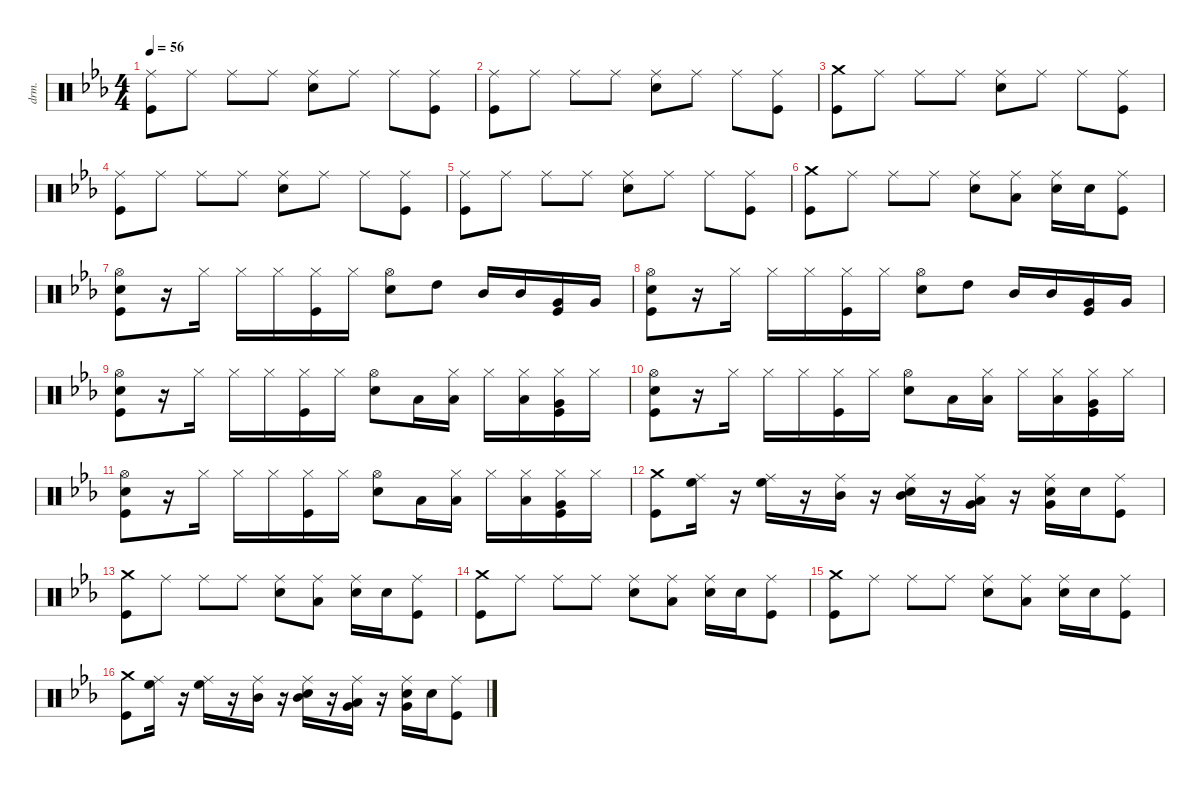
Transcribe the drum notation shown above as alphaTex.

\defaultSystemsLayout 4
\hideDynamics
\bracketExtendMode groupsimilarinstruments
\otherSystemsTrackNameOrientation horizontal
\track ("Percussion" "drm.") {instrument percussion}
\staff {score}
\articulation defaults
\ts (4 4)
\tempo 56
\clef neutral
\ks cminor
("Ride (middle)"{acc forcenatural} "Kick (hit)"{acc forcenatural}).8{dy f beam Down} "Ride (middle)"{acc forcenatural}.8{beam Down} "Ride (middle)"{acc forcenatural}.8{beam Down} "Ride (middle)"{acc forcenatural}.8{beam Down} ("Snare (hit) 2"{acc forcenatural} "Ride (middle)"{acc forcenatural}).8{beam Down} "Ride (middle)"{acc forcenatural}.8{beam Down} "Ride (middle)"{acc forcenatural}.8{beam Down} ("Kick (hit)"{acc forcenatural} "Ride (middle)"{acc forcenatural}).8{beam Down} |
("Ride (middle)"{acc forcenatural} "Kick (hit)"{acc forcenatural}).8{beam Down} "Ride (middle)"{acc forcenatural}.8{beam Down} "Ride (middle)"{acc forcenatural}.8{beam Down} "Ride (middle)"{acc forcenatural}.8{beam Down} ("Snare (hit) 2"{acc forcenatural} "Ride (middle)"{acc forcenatural}).8{beam Down} "Ride (middle)"{acc forcenatural}.8{beam Down} "Ride (middle)"{acc forcenatural}.8{beam Down} ("Kick (hit)"{acc forcenatural} "Ride (middle)"{acc forcenatural}).8{beam Down} |
("Crash medium (hit)"{acc forcenatural} "Kick (hit)"{acc forcenatural}).8{beam Down} "Ride (middle)"{acc forcenatural}.8{beam Down} "Ride (middle)"{acc forcenatural}.8{beam Down} "Ride (middle)"{acc forcenatural}.8{beam Down} ("Snare (hit) 2"{acc forcenatural} "Ride (middle)"{acc forcenatural}).8{beam Down} "Ride (middle)"{acc forcenatural}.8{beam Down} "Ride (middle)"{acc forcenatural}.8{beam Down} ("Kick (hit)"{acc forcenatural} "Ride (middle)"{acc forcenatural}).8{beam Down} |
("Ride (middle)"{acc forcenatural} "Kick (hit)"{acc forcenatural}).8{beam Down} "Ride (middle)"{acc forcenatural}.8{beam Down} "Ride (middle)"{acc forcenatural}.8{beam Down} "Ride (middle)"{acc forcenatural}.8{beam Down} ("Snare (hit) 2"{acc forcenatural} "Ride (middle)"{acc forcenatural}).8{beam Down} "Ride (middle)"{acc forcenatural}.8{beam Down} "Ride (middle)"{acc forcenatural}.8{beam Down} ("Kick (hit)"{acc forcenatural} "Ride (middle)"{acc forcenatural}).8{beam Down} |
("Ride (middle)"{acc forcenatural} "Kick (hit)"{acc forcenatural}).8{beam Down} "Ride (middle)"{acc forcenatural}.8{beam Down} "Ride (middle)"{acc forcenatural}.8{beam Down} "Ride (middle)"{acc forcenatural}.8{beam Down} ("Snare (hit) 2"{acc forcenatural} "Ride (middle)"{acc forcenatural}).8{beam Down} "Ride (middle)"{acc forcenatural}.8{beam Down} "Ride (middle)"{acc forcenatural}.8{beam Down} ("Kick (hit)"{acc forcenatural} "Ride (middle)"{acc forcenatural}).8{beam Down} |
("Crash medium (hit)"{acc forcenatural} "Kick (hit)"{acc forcenatural}).8{beam Down} "Ride (middle)"{acc forcenatural}.8{beam Down} "Ride (middle)"{acc forcenatural}.8{beam Down} "Ride (middle)"{acc forcenatural}.8{beam Down} ("Snare (hit) 2"{acc forcenatural} "Ride (middle)"{acc forcenatural}).8{beam Down} ("Low Floor Tom (hit)"{acc forcenatural} "Ride (middle)"{acc forcenatural}).8{beam Down} ("Snare (hit) 2"{acc forcenatural} "Ride (middle)"{acc forcenatural}).16{beam Down} "Snare (hit) 2"{acc forcenatural}.16{beam Down} ("Kick (hit)"{acc forcenatural} "Ride (middle)"{acc forcenatural}).8{beam Down} |
("Hi-Hat (open)"{acc forcenatural} "Kick (hit)"{acc forcenatural} "Snare (hit) 2"{acc forcenatural}).8{beam Down} r.16{beam Down} "Hi-Hat (closed)"{acc forcenatural}.16{beam Down} "Hi-Hat (closed)"{acc forcenatural}.16{beam Down} "Hi-Hat (closed)"{acc forcenatural}.16{beam Down} ("Kick (hit)"{acc forcenatural} "Hi-Hat (closed)"{acc forcenatural}).16{beam Down} "Hi-Hat (closed)"{acc forcenatural}.16{beam Down} ("Snare (hit) 2"{acc forcenatural} "Hi-Hat (open)"{acc forcenatural}).8{beam Down} "High Tom (hit)"{acc forcenatural}.8{beam Down} "Mid Tom (hit)"{acc forcenatural}.16{beam Up} "Mid Tom (hit)"{acc forcenatural}.16{beam Up} ("Very Low Tom (hit)"{acc forcenatural} "Kick (hit)"{acc forcenatural}).16{beam Up} "Very Low Tom (hit)"{acc forcenatural}.16{beam Up} |
("Hi-Hat (open)"{acc forcenatural} "Kick (hit)"{acc forcenatural} "Snare (hit) 2"{acc forcenatural}).8{beam Down} r.16{beam Down} "Hi-Hat (closed)"{acc forcenatural}.16{beam Down} "Hi-Hat (closed)"{acc forcenatural}.16{beam Down} "Hi-Hat (closed)"{acc forcenatural}.16{beam Down} ("Kick (hit)"{acc forcenatural} "Hi-Hat (closed)"{acc forcenatural}).16{beam Down} "Hi-Hat (closed)"{acc forcenatural}.16{beam Down} ("Snare (hit) 2"{acc forcenatural} "Hi-Hat (open)"{acc forcenatural}).8{beam Down} "High Tom (hit)"{acc forcenatural}.8{beam Down} "Mid Tom (hit)"{acc forcenatural}.16{beam Up} "Mid Tom (hit)"{acc forcenatural}.16{beam Up} ("Very Low Tom (hit)"{acc forcenatural} "Kick (hit)"{acc forcenatural}).16{beam Up} "Very Low Tom (hit)"{acc forcenatural}.16{beam Up} |
("Hi-Hat (open)"{acc forcenatural} "Kick (hit)"{acc forcenatural} "Snare (hit) 2"{acc forcenatural}).8{beam Down} r.16{beam Down} "Hi-Hat (closed)"{acc forcenatural}.16{beam Down} "Hi-Hat (closed)"{acc forcenatural}.16{beam Down} "Hi-Hat (closed)"{acc forcenatural}.16{beam Down} ("Kick (hit)"{acc forcenatural} "Hi-Hat (closed)"{acc forcenatural}).16{beam Down} "Hi-Hat (closed)"{acc forcenatural}.16{beam Down} ("Snare (hit) 2"{acc forcenatural} "Hi-Hat (open)"{acc forcenatural}).8{beam Down} "Low Tom (hit)"{acc forcenatural}.16{beam Down} ("Low Tom (hit)"{acc forcenatural} "Hi-Hat (closed)"{acc forcenatural}).16{beam Down} "Hi-Hat (closed)"{acc forcenatural}.16{beam Down} ("Low Tom (hit)"{acc forcenatural} "Hi-Hat (closed)"{acc forcenatural}).16{beam Down} ("Very Low Tom (hit)"{acc forcenatural} "Kick (hit)"{acc forcenatural} "Hi-Hat (closed)"{acc forcenatural}).16{beam Down} "Hi-Hat (closed)"{acc forcenatural}.16{beam Down} |
("Hi-Hat (open)"{acc forcenatural} "Kick (hit)"{acc forcenatural} "Snare (hit) 2"{acc forcenatural}).8{beam Down} r.16{beam Down} "Hi-Hat (closed)"{acc forcenatural}.16{beam Down} "Hi-Hat (closed)"{acc forcenatural}.16{beam Down} "Hi-Hat (closed)"{acc forcenatural}.16{beam Down} ("Kick (hit)"{acc forcenatural} "Hi-Hat (closed)"{acc forcenatural}).16{beam Down} "Hi-Hat (closed)"{acc forcenatural}.16{beam Down} ("Snare (hit) 2"{acc forcenatural} "Hi-Hat (open)"{acc forcenatural}).8{beam Down} "Low Tom (hit)"{acc forcenatural}.16{beam Down} ("Low Tom (hit)"{acc forcenatural} "Hi-Hat (closed)"{acc forcenatural}).16{beam Down} "Hi-Hat (closed)"{acc forcenatural}.16{beam Down} ("Low Tom (hit)"{acc forcenatural} "Hi-Hat (closed)"{acc forcenatural}).16{beam Down} ("Very Low Tom (hit)"{acc forcenatural} "Kick (hit)"{acc forcenatural} "Hi-Hat (closed)"{acc forcenatural}).16{beam Down} "Hi-Hat (closed)"{acc forcenatural}.16{beam Down} |
("Hi-Hat (open)"{acc forcenatural} "Kick (hit)"{acc forcenatural} "Snare (hit) 2"{acc forcenatural}).8{beam Down} r.16{beam Down} "Hi-Hat (closed)"{acc forcenatural}.16{beam Down} "Hi-Hat (closed)"{acc forcenatural}.16{beam Down} "Hi-Hat (closed)"{acc forcenatural}.16{beam Down} ("Kick (hit)"{acc forcenatural} "Hi-Hat (closed)"{acc forcenatural}).16{beam Down} "Hi-Hat (closed)"{acc forcenatural}.16{beam Down} ("Snare (hit) 2"{acc forcenatural} "Hi-Hat (open)"{acc forcenatural}).8{beam Down} "Low Tom (hit)"{acc forcenatural}.16{beam Down} ("Low Tom (hit)"{acc forcenatural} "Hi-Hat (closed)"{acc forcenatural}).16{beam Down} "Hi-Hat (closed)"{acc forcenatural}.16{beam Down} ("Low Tom (hit)"{acc forcenatural} "Hi-Hat (closed)"{acc forcenatural}).16{beam Down} ("Very Low Tom (hit)"{acc forcenatural} "Kick (hit)"{acc forcenatural} "Hi-Hat (closed)"{acc forcenatural}).16{beam Down} "Hi-Hat (closed)"{acc forcenatural}.16{beam Down} |
("Crash medium (hit)"{acc forcenatural} "Kick (hit)"{acc forcenatural}).8{beam Down} ("High Floor Tom (hit)"{acc forcenatural} "Ride (middle)"{acc forcenatural}).16{beam Down} r.16{beam Down} ("High Floor Tom (hit)"{acc forcenatural} "Ride (middle)"{acc forcenatural}).16{beam Down} r.16{beam Down} ("Mid Tom (hit)"{acc forcenatural} "Ride (middle)"{acc forcenatural}).16{beam Down} r.16{beam Down} ("Mid Tom (hit)"{acc forcenatural} "Snare (hit) 2"{acc forcenatural} "Ride (middle)"{acc forcenatural}).16{beam Down} r.16{beam Down} ("Very Low Tom (hit)"{acc forcenatural} "Low Floor Tom (hit)"{acc forcenatural} "Ride (middle)"{acc forcenatural}).16{beam Down} r.16{beam Down} ("Very Low Tom (hit)"{acc forcenatural} "Snare (hit) 2"{acc forcenatural} "Ride (middle)"{acc forcenatural}).16{beam Down} "Snare (hit) 2"{acc forcenatural}.16{beam Down} ("Kick (hit)"{acc forcenatural} "Ride (middle)"{acc forcenatural}).8{beam Down} |
("Crash medium (hit)"{acc forcenatural} "Kick (hit)"{acc forcenatural}).8{beam Down} "Ride (middle)"{acc forcenatural}.8{beam Down} "Ride (middle)"{acc forcenatural}.8{beam Down} "Ride (middle)"{acc forcenatural}.8{beam Down} ("Snare (hit) 2"{acc forcenatural} "Ride (middle)"{acc forcenatural}).8{beam Down} ("Low Floor Tom (hit)"{acc forcenatural} "Ride (middle)"{acc forcenatural}).8{beam Down} ("Snare (hit) 2"{acc forcenatural} "Ride (middle)"{acc forcenatural}).16{beam Down} "Snare (hit) 2"{acc forcenatural}.16{beam Down} ("Kick (hit)"{acc forcenatural} "Ride (middle)"{acc forcenatural}).8{beam Down} |
("Crash medium (hit)"{acc forcenatural} "Kick (hit)"{acc forcenatural}).8{beam Down} "Ride (middle)"{acc forcenatural}.8{beam Down} "Ride (middle)"{acc forcenatural}.8{beam Down} "Ride (middle)"{acc forcenatural}.8{beam Down} ("Snare (hit) 2"{acc forcenatural} "Ride (middle)"{acc forcenatural}).8{beam Down} ("Low Floor Tom (hit)"{acc forcenatural} "Ride (middle)"{acc forcenatural}).8{beam Down} ("Snare (hit) 2"{acc forcenatural} "Ride (middle)"{acc forcenatural}).16{beam Down} "Snare (hit) 2"{acc forcenatural}.16{beam Down} ("Kick (hit)"{acc forcenatural} "Ride (middle)"{acc forcenatural}).8{beam Down} |
("Crash medium (hit)"{acc forcenatural} "Kick (hit)"{acc forcenatural}).8{beam Down} "Ride (middle)"{acc forcenatural}.8{beam Down} "Ride (middle)"{acc forcenatural}.8{beam Down} "Ride (middle)"{acc forcenatural}.8{beam Down} ("Snare (hit) 2"{acc forcenatural} "Ride (middle)"{acc forcenatural}).8{beam Down} ("Low Floor Tom (hit)"{acc forcenatural} "Ride (middle)"{acc forcenatural}).8{beam Down} ("Snare (hit) 2"{acc forcenatural} "Ride (middle)"{acc forcenatural}).16{beam Down} "Snare (hit) 2"{acc forcenatural}.16{beam Down} ("Kick (hit)"{acc forcenatural} "Ride (middle)"{acc forcenatural}).8{beam Down} |
("Crash medium (hit)"{acc forcenatural} "Kick (hit)"{acc forcenatural}).8{beam Down} ("High Floor Tom (hit)"{acc forcenatural} "Ride (middle)"{acc forcenatural}).16{beam Down} r.16{beam Down} ("High Floor Tom (hit)"{acc forcenatural} "Ride (middle)"{acc forcenatural}).16{beam Down} r.16{beam Down} ("Mid Tom (hit)"{acc forcenatural} "Ride (middle)"{acc forcenatural}).16{beam Down} r.16{beam Down} ("Mid Tom (hit)"{acc forcenatural} "Snare (hit) 2"{acc forcenatural} "Ride (middle)"{acc forcenatural}).16{beam Down} r.16{beam Down} ("Very Low Tom (hit)"{acc forcenatural} "Low Floor Tom (hit)"{acc forcenatural} "Ride (middle)"{acc forcenatural}).16{beam Down} r.16{beam Down} ("Very Low Tom (hit)"{acc forcenatural} "Snare (hit) 2"{acc forcenatural} "Ride (middle)"{acc forcenatural}).16{beam Down} "Snare (hit) 2"{acc forcenatural}.16{beam Down} ("Kick (hit)"{acc forcenatural} "Ride (middle)"{acc forcenatural}).8{beam Down}
